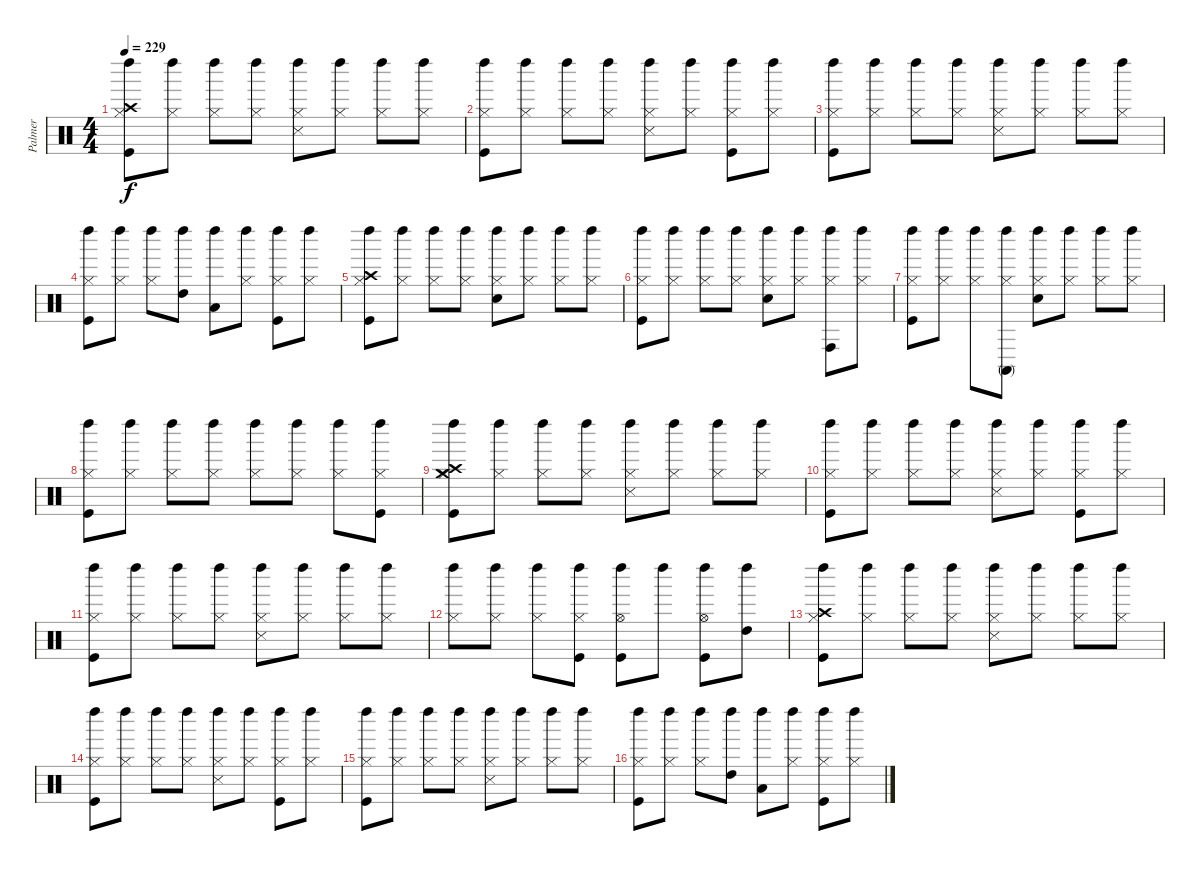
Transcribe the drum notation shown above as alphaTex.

\track ("Palmer" "Palmer") {instrument percussion}
\staff {score}
\articulation defaults
\ts (4 4)
\tempo 229
\clef neutral
\ks c
("Kick (hit)" "Hi-Hat (closed)" "Crash high (hit)" "Left Maraca (hit)").8{dy f} ("Hi-Hat (closed)" "Left Maraca (hit)").8 ("Hi-Hat (closed)" "Left Maraca (hit)").8 ("Hi-Hat (closed)" "Left Maraca (hit)").8 ("Hi-Hat (closed)" "Snare (side stick) 3" "Left Maraca (hit)").8 ("Hi-Hat (closed)" "Left Maraca (hit)").8 ("Hi-Hat (closed)" "Left Maraca (hit)").8 ("Hi-Hat (closed)" "Left Maraca (hit)").8 |
("Kick (hit)" "Hi-Hat (closed)" "Left Maraca (hit)").8 ("Hi-Hat (closed)" "Left Maraca (hit)").8 ("Hi-Hat (closed)" "Left Maraca (hit)").8 ("Hi-Hat (closed)" "Left Maraca (hit)").8 ("Hi-Hat (closed)" "Snare (side stick) 3" "Left Maraca (hit)").8 ("Hi-Hat (closed)" "Left Maraca (hit)").8 ("Kick (hit)" "Hi-Hat (closed)" "Left Maraca (hit)").8 ("Hi-Hat (closed)" "Left Maraca (hit)").8 |
("Kick (hit)" "Hi-Hat (closed)" "Left Maraca (hit)").8 ("Hi-Hat (closed)" "Left Maraca (hit)").8 ("Hi-Hat (closed)" "Left Maraca (hit)").8 ("Hi-Hat (closed)" "Left Maraca (hit)").8 ("Hi-Hat (closed)" "Snare (side stick) 3" "Left Maraca (hit)").8 ("Hi-Hat (closed)" "Left Maraca (hit)").8 ("Hi-Hat (closed)" "Left Maraca (hit)").8 ("Hi-Hat (closed)" "Left Maraca (hit)").8 |
("Kick (hit)" "Hi-Hat (closed)" "Left Maraca (hit)").8 ("Hi-Hat (closed)" "Left Maraca (hit)").8 ("Hi-Hat (closed)" "Left Maraca (hit)").8 ("High Tom (hit)" "Left Maraca (hit)").8 ("Low Tom (hit)" "Left Maraca (hit)").8 ("Hi-Hat (closed)" "Left Maraca (hit)").8 ("Kick (hit)" "Hi-Hat (closed)" "Left Maraca (hit)").8 ("Hi-Hat (closed)" "Left Maraca (hit)").8 |
("Kick (hit)" "Hi-Hat (closed)" "Crash high (hit)" "Left Maraca (hit)").8 ("Hi-Hat (closed)" "Left Maraca (hit)").8 ("Hi-Hat (closed)" "Left Maraca (hit)").8 ("Hi-Hat (closed)" "Left Maraca (hit)").8 ("Snare (hit) 2" "Hi-Hat (closed)" "Left Maraca (hit)").8 ("Hi-Hat (closed)" "Left Maraca (hit)").8 ("Hi-Hat (closed)" "Left Maraca (hit)").8 ("Hi-Hat (closed)" "Left Maraca (hit)").8 |
("Kick (hit)" "Hi-Hat (closed)" "Left Maraca (hit)").8 ("Hi-Hat (closed)" "Left Maraca (hit)").8 ("Hi-Hat (closed)" "Left Maraca (hit)").8 ("Hi-Hat (closed)" "Left Maraca (hit)").8 ("Snare (hit) 2" "Hi-Hat (closed)" "Left Maraca (hit)").8 ("Hi-Hat (closed)" "Left Maraca (hit)").8 ("Hi-Hat (closed)" "Conga high (hit)" "Left Maraca (hit)").8 ("Hi-Hat (closed)" "Left Maraca (hit)").8 |
("Kick (hit)" "Hi-Hat (closed)" "Left Maraca (hit)").8 ("Hi-Hat (closed)" "Left Maraca (hit)").8 ("Hi-Hat (closed)" "Left Maraca (hit)").8 ("Hi-Hat (closed)" "Conga high (mute)" "Left Maraca (hit)").8 ("Snare (hit) 2" "Hi-Hat (closed)" "Left Maraca (hit)").8 ("Hi-Hat (closed)" "Left Maraca (hit)").8 ("Hi-Hat (closed)" "Left Maraca (hit)").8 ("Hi-Hat (closed)" "Left Maraca (hit)").8 |
("Kick (hit)" "Hi-Hat (closed)" "Left Maraca (hit)").8 ("Hi-Hat (closed)" "Left Maraca (hit)").8 ("Hi-Hat (closed)" "Left Maraca (hit)").8 ("Hi-Hat (closed)" "Left Maraca (hit)").8 ("Hi-Hat (closed)" "Left Maraca (hit)").8 ("Hi-Hat (closed)" "Left Maraca (hit)").8 ("Hi-Hat (closed)" "Left Maraca (hit)").8 ("Kick (hit)" "Hi-Hat (closed)" "Left Maraca (hit)").8 |
("Crash medium (hit)" "Kick (hit)" "Hi-Hat (closed)" "Crash high (hit)" "Left Maraca (hit)").8 ("Hi-Hat (closed)" "Left Maraca (hit)").8 ("Hi-Hat (closed)" "Left Maraca (hit)").8 ("Hi-Hat (closed)" "Left Maraca (hit)").8 ("Hi-Hat (closed)" "Snare (side stick) 3" "Left Maraca (hit)").8 ("Hi-Hat (closed)" "Left Maraca (hit)").8 ("Hi-Hat (closed)" "Left Maraca (hit)").8 ("Hi-Hat (closed)" "Left Maraca (hit)").8 |
("Kick (hit)" "Hi-Hat (closed)" "Left Maraca (hit)").8 ("Hi-Hat (closed)" "Left Maraca (hit)").8 ("Hi-Hat (closed)" "Left Maraca (hit)").8 ("Hi-Hat (closed)" "Left Maraca (hit)").8 ("Hi-Hat (closed)" "Snare (side stick) 3" "Left Maraca (hit)").8 ("Hi-Hat (closed)" "Left Maraca (hit)").8 ("Kick (hit)" "Hi-Hat (closed)" "Left Maraca (hit)").8 ("Hi-Hat (closed)" "Left Maraca (hit)").8 |
("Kick (hit)" "Hi-Hat (closed)" "Left Maraca (hit)").8 ("Hi-Hat (closed)" "Left Maraca (hit)").8 ("Hi-Hat (closed)" "Left Maraca (hit)").8 ("Hi-Hat (closed)" "Left Maraca (hit)").8 ("Hi-Hat (closed)" "Snare (side stick) 3" "Left Maraca (hit)").8 ("Hi-Hat (closed)" "Left Maraca (hit)").8 ("Hi-Hat (closed)" "Left Maraca (hit)").8 ("Hi-Hat (closed)" "Left Maraca (hit)").8 |
("Hi-Hat (closed)" "Left Maraca (hit)").8 ("Hi-Hat (closed)" "Left Maraca (hit)").8 ("Hi-Hat (closed)" "Left Maraca (hit)").8 ("Kick (hit)" "Hi-Hat (closed)" "Left Maraca (hit)").8 ("Kick (hit)" "Hi-Hat (open)" "Left Maraca (hit)").8 "Left Maraca (hit)".8 ("Kick (hit)" "Hi-Hat (open)" "Left Maraca (hit)").8 ("High Tom (hit)" "Left Maraca (hit)").8 |
("Kick (hit)" "Hi-Hat (closed)" "Crash high (hit)" "Left Maraca (hit)").8 ("Hi-Hat (closed)" "Left Maraca (hit)").8 ("Hi-Hat (closed)" "Left Maraca (hit)").8 ("Hi-Hat (closed)" "Left Maraca (hit)").8 ("Hi-Hat (closed)" "Snare (side stick) 3" "Left Maraca (hit)").8 ("Hi-Hat (closed)" "Left Maraca (hit)").8 ("Hi-Hat (closed)" "Left Maraca (hit)").8 ("Hi-Hat (closed)" "Left Maraca (hit)").8 |
("Kick (hit)" "Hi-Hat (closed)" "Left Maraca (hit)").8 ("Hi-Hat (closed)" "Left Maraca (hit)").8 ("Hi-Hat (closed)" "Left Maraca (hit)").8 ("Hi-Hat (closed)" "Left Maraca (hit)").8 ("Hi-Hat (closed)" "Snare (side stick) 3" "Left Maraca (hit)").8 ("Hi-Hat (closed)" "Left Maraca (hit)").8 ("Kick (hit)" "Hi-Hat (closed)" "Left Maraca (hit)").8 ("Hi-Hat (closed)" "Left Maraca (hit)").8 |
("Kick (hit)" "Hi-Hat (closed)" "Left Maraca (hit)").8 ("Hi-Hat (closed)" "Left Maraca (hit)").8 ("Hi-Hat (closed)" "Left Maraca (hit)").8 ("Hi-Hat (closed)" "Left Maraca (hit)").8 ("Hi-Hat (closed)" "Snare (side stick) 3" "Left Maraca (hit)").8 ("Hi-Hat (closed)" "Left Maraca (hit)").8 ("Hi-Hat (closed)" "Left Maraca (hit)").8 ("Hi-Hat (closed)" "Left Maraca (hit)").8 |
("Kick (hit)" "Hi-Hat (closed)" "Left Maraca (hit)").8 ("Hi-Hat (closed)" "Left Maraca (hit)").8 ("Hi-Hat (closed)" "Left Maraca (hit)").8 ("High Tom (hit)" "Left Maraca (hit)").8 ("Low Tom (hit)" "Left Maraca (hit)").8 ("Hi-Hat (closed)" "Left Maraca (hit)").8 ("Kick (hit)" "Hi-Hat (closed)" "Left Maraca (hit)").8 ("Hi-Hat (closed)" "Left Maraca (hit)").8
